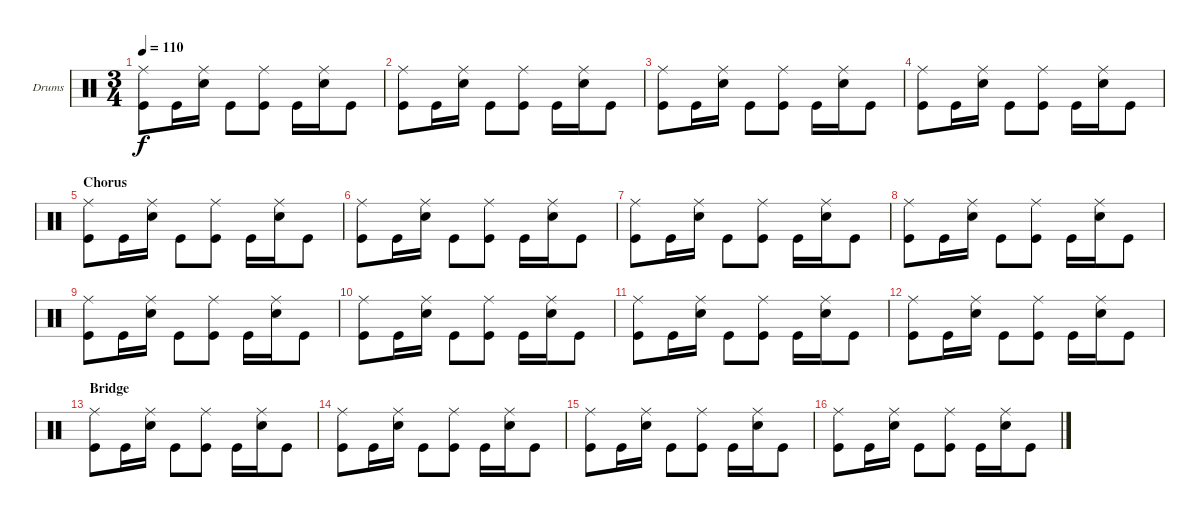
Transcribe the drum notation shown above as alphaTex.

\defaultSystemsLayout 4
\bracketExtendMode nobrackets
\firstSystemTrackNameOrientation horizontal
\otherSystemsTrackNameOrientation horizontal
\track ("Drumkit" "Drums") {instrument percussion}
\staff {score}
\articulation defaults
\ts (3 4)
\tempo 110
\clef neutral
\ks c
("Ride (middle)" "Kick (hit)").8{dy f} "Kick (hit)".16 ("Ride (middle)" "Snare (hit) 2").16 "Kick (hit)".8 ("Ride (middle)" "Kick (hit)").8 "Kick (hit)".16 ("Ride (middle)" "Snare (hit) 2").16 "Kick (hit)".8 |
("Ride (middle)" "Kick (hit)").8 "Kick (hit)".16 ("Ride (middle)" "Snare (hit) 2").16 "Kick (hit)".8 ("Ride (middle)" "Kick (hit)").8 "Kick (hit)".16 ("Ride (middle)" "Snare (hit) 2").16 "Kick (hit)".8 |
("Ride (middle)" "Kick (hit)").8 "Kick (hit)".16 ("Ride (middle)" "Snare (hit) 2").16 "Kick (hit)".8 ("Ride (middle)" "Kick (hit)").8 "Kick (hit)".16 ("Ride (middle)" "Snare (hit) 2").16 "Kick (hit)".8 |
("Ride (middle)" "Kick (hit)").8 "Kick (hit)".16 ("Ride (middle)" "Snare (hit) 2").16 "Kick (hit)".8 ("Ride (middle)" "Kick (hit)").8 "Kick (hit)".16 ("Ride (middle)" "Snare (hit) 2").16 "Kick (hit)".8 |
\section ("" "Chorus")
("Ride (middle)" "Kick (hit)").8 "Kick (hit)".16 ("Ride (middle)" "Snare (hit) 2").16 "Kick (hit)".8 ("Ride (middle)" "Kick (hit)").8 "Kick (hit)".16 ("Ride (middle)" "Snare (hit) 2").16 "Kick (hit)".8 |
("Ride (middle)" "Kick (hit)").8 "Kick (hit)".16 ("Ride (middle)" "Snare (hit) 2").16 "Kick (hit)".8 ("Ride (middle)" "Kick (hit)").8 "Kick (hit)".16 ("Ride (middle)" "Snare (hit) 2").16 "Kick (hit)".8 |
("Ride (middle)" "Kick (hit)").8 "Kick (hit)".16 ("Ride (middle)" "Snare (hit) 2").16 "Kick (hit)".8 ("Ride (middle)" "Kick (hit)").8 "Kick (hit)".16 ("Ride (middle)" "Snare (hit) 2").16 "Kick (hit)".8 |
("Ride (middle)" "Kick (hit)").8 "Kick (hit)".16 ("Ride (middle)" "Snare (hit) 2").16 "Kick (hit)".8 ("Ride (middle)" "Kick (hit)").8 "Kick (hit)".16 ("Ride (middle)" "Snare (hit) 2").16 "Kick (hit)".8 |
("Ride (middle)" "Kick (hit)").8 "Kick (hit)".16 ("Ride (middle)" "Snare (hit) 2").16 "Kick (hit)".8 ("Ride (middle)" "Kick (hit)").8 "Kick (hit)".16 ("Ride (middle)" "Snare (hit) 2").16 "Kick (hit)".8 |
("Ride (middle)" "Kick (hit)").8 "Kick (hit)".16 ("Ride (middle)" "Snare (hit) 2").16 "Kick (hit)".8 ("Ride (middle)" "Kick (hit)").8 "Kick (hit)".16 ("Ride (middle)" "Snare (hit) 2").16 "Kick (hit)".8 |
("Ride (middle)" "Kick (hit)").8 "Kick (hit)".16 ("Ride (middle)" "Snare (hit) 2").16 "Kick (hit)".8 ("Ride (middle)" "Kick (hit)").8 "Kick (hit)".16 ("Ride (middle)" "Snare (hit) 2").16 "Kick (hit)".8 |
("Ride (middle)" "Kick (hit)").8 "Kick (hit)".16 ("Ride (middle)" "Snare (hit) 2").16 "Kick (hit)".8 ("Ride (middle)" "Kick (hit)").8 "Kick (hit)".16 ("Ride (middle)" "Snare (hit) 2").16 "Kick (hit)".8 |
\section ("" "Bridge")
("Ride (middle)" "Kick (hit)").8 "Kick (hit)".16 ("Ride (middle)" "Snare (hit) 2").16 "Kick (hit)".8 ("Ride (middle)" "Kick (hit)").8 "Kick (hit)".16 ("Ride (middle)" "Snare (hit) 2").16 "Kick (hit)".8 |
("Ride (middle)" "Kick (hit)").8 "Kick (hit)".16 ("Ride (middle)" "Snare (hit) 2").16 "Kick (hit)".8 ("Ride (middle)" "Kick (hit)").8 "Kick (hit)".16 ("Ride (middle)" "Snare (hit) 2").16 "Kick (hit)".8 |
("Ride (middle)" "Kick (hit)").8 "Kick (hit)".16 ("Ride (middle)" "Snare (hit) 2").16 "Kick (hit)".8 ("Ride (middle)" "Kick (hit)").8 "Kick (hit)".16 ("Ride (middle)" "Snare (hit) 2").16 "Kick (hit)".8 |
("Ride (middle)" "Kick (hit)").8 "Kick (hit)".16 ("Ride (middle)" "Snare (hit) 2").16 "Kick (hit)".8 ("Ride (middle)" "Kick (hit)").8 "Kick (hit)".16 ("Ride (middle)" "Snare (hit) 2").16 "Kick (hit)".8
